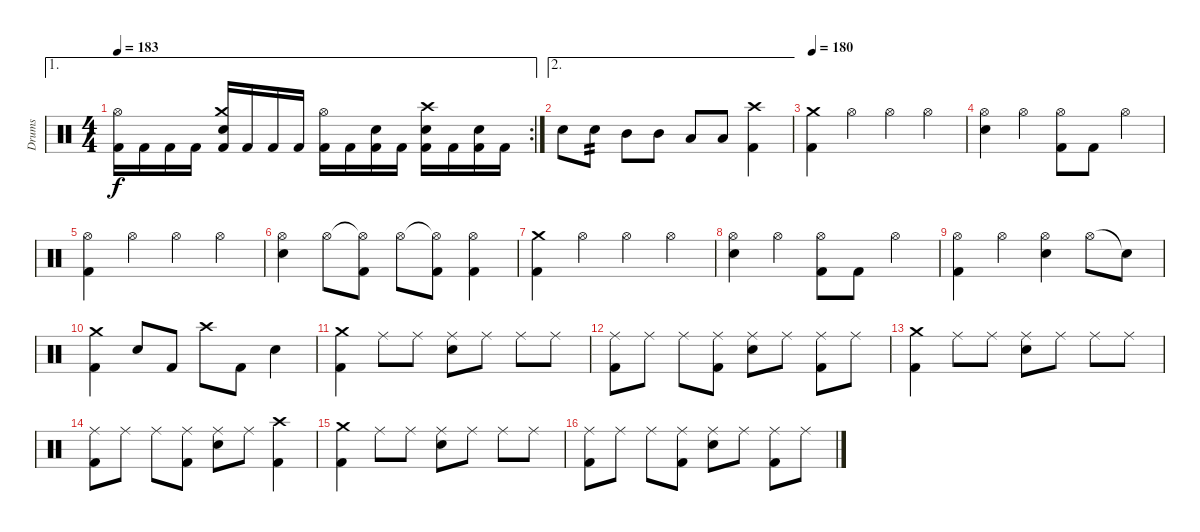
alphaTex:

\track ("Drums" "Drums") {instrument percussion}
\staff {score}
\articulation defaults
\ae 1
\rc 2
\ts (4 4)
\tempo 183
\clef neutral
\ks c
("Hi-Hat (open)" "Kick (hit) 2").16{dy f} "Kick (hit) 2".16 "Kick (hit) 2".16 "Kick (hit) 2".16 ("Crash medium (hit)" "Electric Snare (hit)" "Kick (hit) 2").16 "Kick (hit) 2".16 "Kick (hit) 2".16 "Kick (hit) 2".16 ("Hi-Hat (open)" "Kick (hit) 2").16 "Kick (hit) 2".16 ("Electric Snare (hit)" "Kick (hit) 2").16 "Kick (hit) 2".16 ("Crash high (hit)" "Electric Snare (hit)" "Kick (hit) 2").16 "Kick (hit) 2".16 ("Electric Snare (hit)" "Kick (hit) 2").16 "Kick (hit) 2".16 |
\ae 2 "Electric Snare (hit)".8 "Electric Snare (hit)".8{tp 2} "Mid Tom (hit)".8 "Mid Tom (hit)".8 "Low Tom (hit)".8 "Low Tom (hit)".8
("Crash high (hit)" "Kick (hit) 2").4 |
\tempo 180
("Crash medium (hit)" "Kick (hit) 2").4 "Hi-Hat (open)".4 "Hi-Hat (open)".4 "Hi-Hat (open)".4 |
("Hi-Hat (open)" "Electric Snare (hit)").4 "Hi-Hat (open)".4 ("Hi-Hat (open)" "Kick (hit) 2").8 "Kick (hit) 2".8 "Hi-Hat (open)".4 |
("Hi-Hat (open)" "Kick (hit) 2").4 "Hi-Hat (open)".4 "Hi-Hat (open)".4 "Hi-Hat (open)".4 |
("Hi-Hat (open)" "Electric Snare (hit)").4 "Hi-Hat (open)".8 ("Hi-Hat (open)"{t} "Kick (hit) 2").8 "Hi-Hat (open)".8 ("Hi-Hat (open)"{t} "Kick (hit) 2").8 ("Hi-Hat (open)" "Kick (hit) 2").4 |
("Crash medium (hit)" "Kick (hit) 2").4 "Hi-Hat (open)".4 "Hi-Hat (open)".4 "Hi-Hat (open)".4 |
("Hi-Hat (open)" "Electric Snare (hit)").4 "Hi-Hat (open)".4 ("Hi-Hat (open)" "Kick (hit) 2").8 "Kick (hit) 2".8 "Hi-Hat (open)".4 |
("Hi-Hat (open)" "Kick (hit) 2").4 "Hi-Hat (open)".4 ("Hi-Hat (open)" "Electric Snare (hit)").4 "Hi-Hat (open)".8 "Snare (hit)"{t}.8 |
("Crash medium (hit)" "Kick (hit) 2").4 "Electric Snare (hit)".8 "Kick (hit) 2".8 "Crash high (hit)".8 "Kick (hit) 2".8 "Electric Snare (hit)".4 |
("Crash medium (hit)" "Kick (hit) 2").4 "Ride (middle)".8 "Ride (middle)".8 ("Ride (middle)" "Electric Snare (hit)").8 "Ride (middle)".8 "Ride (middle)".8 "Ride (middle)".8 |
("Ride (middle)" "Kick (hit) 2").8 "Ride (middle)".8 "Ride (middle)".8 ("Ride (middle)" "Kick (hit) 2").8 ("Ride (middle)" "Electric Snare (hit)").8 "Ride (middle)".8 ("Ride (middle)" "Kick (hit) 2").8 "Ride (middle)".8 |
("Crash medium (hit)" "Kick (hit) 2").4 "Ride (middle)".8 "Ride (middle)".8 ("Ride (middle)" "Electric Snare (hit)").8 "Ride (middle)".8 "Ride (middle)".8 "Ride (middle)".8 |
("Ride (middle)" "Kick (hit) 2").8 "Ride (middle)".8 "Ride (middle)".8 ("Ride (middle)" "Kick (hit) 2").8 ("Ride (middle)" "Electric Snare (hit)").8 "Ride (middle)".8 ("Crash high (hit)" "Kick (hit) 2").4 |
("Crash medium (hit)" "Kick (hit) 2").4 "Ride (middle)".8 "Ride (middle)".8 ("Ride (middle)" "Electric Snare (hit)").8 "Ride (middle)".8 "Ride (middle)".8 "Ride (middle)".8 |
("Ride (middle)" "Kick (hit) 2").8 "Ride (middle)".8 "Ride (middle)".8 ("Ride (middle)" "Kick (hit) 2").8 ("Ride (middle)" "Electric Snare (hit)").8 "Ride (middle)".8 ("Ride (middle)" "Kick (hit) 2").8 "Ride (middle)".8
